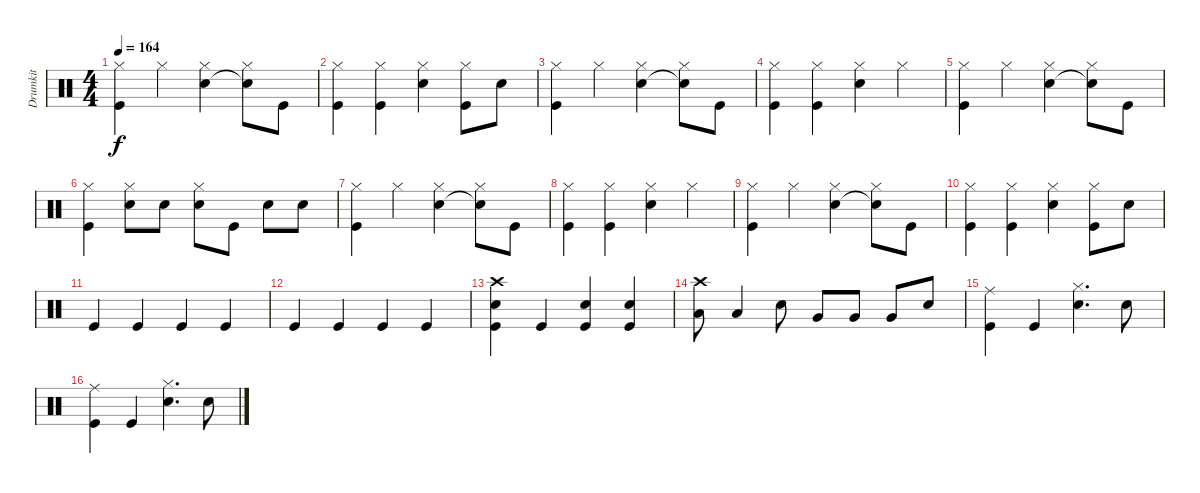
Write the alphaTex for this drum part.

\track ("Drumkit" "Drumkit") {instrument percussion}
\staff {score}
\articulation defaults
\ts (4 4)
\tempo 164
\clef neutral
\ks c
("Hi-Hat (closed)" "Kick (hit)").4{dy f} "Hi-Hat (closed)".4 ("Hi-Hat (closed)" "Snare (hit) 2").4 ("Hi-Hat (closed)" "Snare (hit) 2"{t}).8 "Kick (hit)".8 |
("Hi-Hat (closed)" "Kick (hit)").4 ("Hi-Hat (closed)" "Kick (hit)").4 ("Hi-Hat (closed)" "Snare (hit) 2").4 ("Hi-Hat (closed)" "Kick (hit)").8 "Snare (hit) 2".8 |
("Hi-Hat (closed)" "Kick (hit)").4 "Hi-Hat (closed)".4 ("Hi-Hat (closed)" "Snare (hit) 2").4 ("Hi-Hat (closed)" "Snare (hit) 2"{t}).8 "Kick (hit)".8 |
("Hi-Hat (closed)" "Kick (hit)").4 ("Hi-Hat (closed)" "Kick (hit)").4 ("Hi-Hat (closed)" "Snare (hit) 2").4 "Hi-Hat (closed)".4 |
("Hi-Hat (closed)" "Kick (hit)").4 "Hi-Hat (closed)".4 ("Hi-Hat (closed)" "Snare (hit) 2").4 ("Hi-Hat (closed)" "Snare (hit) 2"{t}).8 "Kick (hit)".8 |
("Hi-Hat (closed)" "Kick (hit)").4 ("Hi-Hat (closed)" "Snare (hit) 2").8 "Snare (hit) 2".8 ("Hi-Hat (closed)" "Snare (hit) 2").8 "Kick (hit)".8 "Snare (hit) 2".8 "Snare (hit) 2".8 |
("Hi-Hat (closed)" "Kick (hit)").4 "Hi-Hat (closed)".4 ("Hi-Hat (closed)" "Snare (hit) 2").4 ("Hi-Hat (closed)" "Snare (hit) 2"{t}).8 "Kick (hit)".8 |
("Hi-Hat (closed)" "Kick (hit)").4 ("Hi-Hat (closed)" "Kick (hit)").4 ("Hi-Hat (closed)" "Snare (hit) 2").4 "Hi-Hat (closed)".4 |
("Hi-Hat (closed)" "Kick (hit)").4 "Hi-Hat (closed)".4 ("Hi-Hat (closed)" "Snare (hit) 2").4 ("Hi-Hat (closed)" "Snare (hit) 2"{t}).8 "Kick (hit)".8 |
("Hi-Hat (closed)" "Kick (hit)").4 ("Hi-Hat (closed)" "Kick (hit)").4 ("Hi-Hat (closed)" "Snare (hit) 2").4 ("Hi-Hat (closed)" "Kick (hit)").8 "Snare (hit) 2".8 |
"Kick (hit)".4 "Kick (hit)".4 "Kick (hit)".4 "Kick (hit)".4 |
"Kick (hit)".4 "Kick (hit)".4 "Kick (hit)".4 "Kick (hit)".4 |
("Kick (hit)" "Snare (hit) 2" "Crash high (hit)").4 "Kick (hit)".4 ("Snare (hit) 2" "Kick (hit)").4 ("Snare (hit) 2" "Kick (hit)").4 |
("Low Tom (hit)" "Crash high (hit)").8 "Low Tom (hit)".4 "Snare (hit) 2".8 "Very Low Tom (hit)".8 "Very Low Tom (hit)".8 "Very Low Tom (hit)".8 "Snare (hit) 2".8 |
("Kick (hit)" "Ride (middle)").4 "Kick (hit)".4 ("Hi-Hat (closed)" "Snare (hit) 2").4{d} "Snare (hit) 2".8 |
("Kick (hit)" "Ride (middle)").4 "Kick (hit)".4 ("Hi-Hat (closed)" "Snare (hit) 2").4{d} "Snare (hit) 2".8
